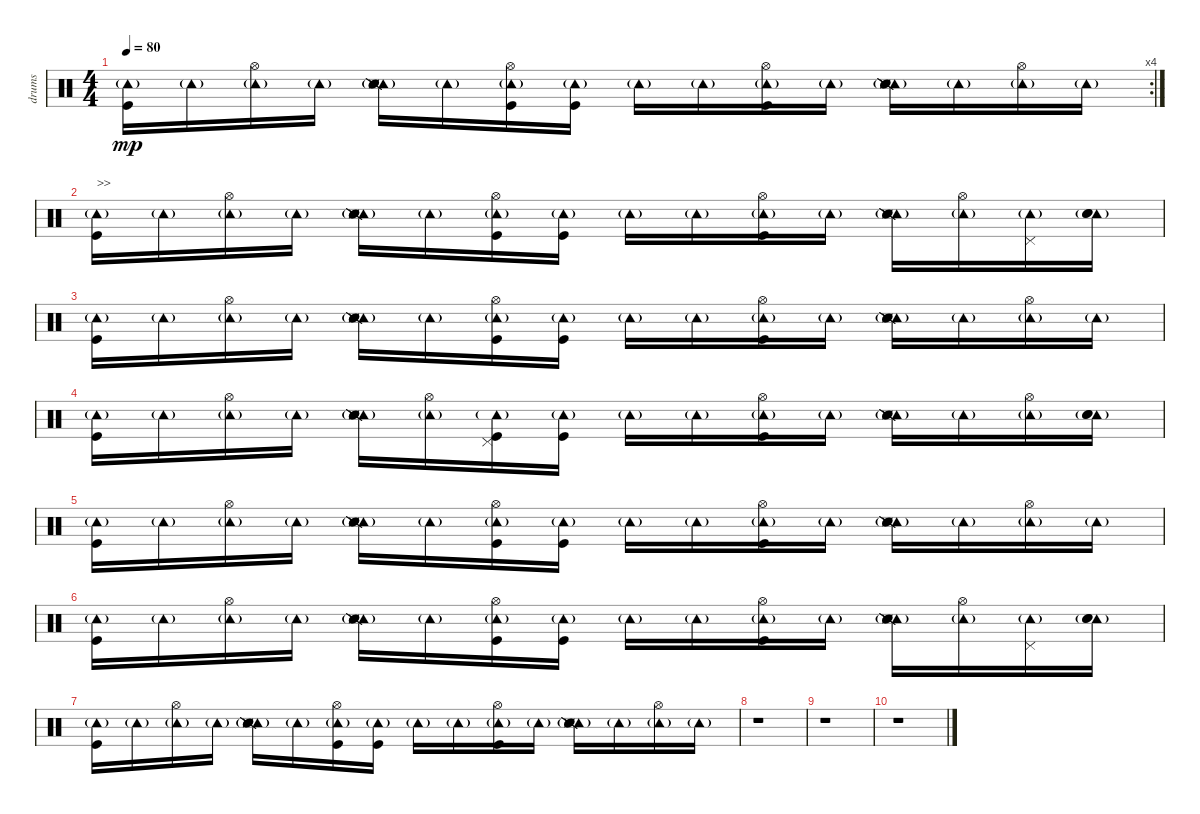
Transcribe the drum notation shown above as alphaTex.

\track ("drums" "drums") {instrument percussion}
\staff {score}
\articulation defaults
\rc 4
\ts (4 4)
\tempo 80
\clef neutral
\ks c
("Tambourine (hit)"{g} "Kick (hit)").16{dy mp} "Tambourine (hit)"{g}.16 ("Tambourine (hit)"{g} "Hi-Hat (open)").16 "Tambourine (hit)"{g}.16 ("Tambourine (hit)"{g} "Snare (side stick) 2" "Snare (side stick) 2" "Metronome (hit)" "Metronome (hit)").16 "Tambourine (hit)"{g}.16 ("Tambourine (hit)"{g} "Hi-Hat (open)" "Kick (hit)").16 ("Tambourine (hit)"{g} "Kick (hit)").16 "Tambourine (hit)"{g}.16 "Tambourine (hit)"{g}.16 ("Tambourine (hit)"{g} "Hi-Hat (open)" "Kick (hit)").16 "Tambourine (hit)"{g}.16 ("Tambourine (hit)"{g} "Snare (side stick) 2" "Snare (side stick) 2" "Metronome (hit)" "Metronome (hit)").16 "Tambourine (hit)"{g}.16 ("Tambourine (hit)"{g} "Hi-Hat (open)").16 "Tambourine (hit)"{g}.16 |
("Tambourine (hit)"{g} "Kick (hit)").16{txt ">>"} "Tambourine (hit)"{g}.16 ("Tambourine (hit)"{g} "Hi-Hat (open)").16 "Tambourine (hit)"{g}.16 ("Tambourine (hit)"{g} "Snare (side stick) 2" "Snare (side stick) 2" "Metronome (hit)" "Metronome (hit)").16 "Tambourine (hit)"{g}.16 ("Tambourine (hit)"{g} "Hi-Hat (open)" "Kick (hit)").16 ("Tambourine (hit)"{g} "Kick (hit)").16 "Tambourine (hit)"{g}.16 "Tambourine (hit)"{g}.16 ("Tambourine (hit)"{g} "Hi-Hat (open)" "Kick (hit)").16 "Tambourine (hit)"{g}.16 ("Tambourine (hit)"{g} "Snare (side stick) 2" "Snare (side stick) 2" "Metronome (hit)" "Metronome (hit)").16 ("Tambourine (hit)"{g} "Hi-Hat (open)").16 ("Tambourine (hit)"{g} "Pedal Hi-Hat (hit)").16 ("Tambourine (hit)"{g} "Snare (hit) 2" "Snare (hit) 2").16 |
("Tambourine (hit)"{g} "Kick (hit)").16 "Tambourine (hit)"{g}.16 ("Tambourine (hit)"{g} "Hi-Hat (open)").16 "Tambourine (hit)"{g}.16 ("Tambourine (hit)"{g} "Snare (side stick) 2" "Snare (side stick) 2" "Metronome (hit)" "Metronome (hit)").16 "Tambourine (hit)"{g}.16 ("Tambourine (hit)"{g} "Hi-Hat (open)" "Kick (hit)").16 ("Tambourine (hit)"{g} "Kick (hit)").16 "Tambourine (hit)"{g}.16 "Tambourine (hit)"{g}.16 ("Tambourine (hit)"{g} "Hi-Hat (open)" "Kick (hit)").16 "Tambourine (hit)"{g}.16 ("Tambourine (hit)"{g} "Snare (side stick) 2" "Snare (side stick) 2" "Metronome (hit)" "Metronome (hit)").16 "Tambourine (hit)"{g}.16 ("Tambourine (hit)"{g} "Hi-Hat (open)").16 "Tambourine (hit)"{g}.16 |
("Tambourine (hit)"{g} "Kick (hit)").16 "Tambourine (hit)"{g}.16 ("Tambourine (hit)"{g} "Hi-Hat (open)").16 "Tambourine (hit)"{g}.16 ("Tambourine (hit)"{g} "Snare (side stick) 2" "Snare (side stick) 2" "Metronome (hit)" "Metronome (hit)").16 ("Tambourine (hit)"{g} "Hi-Hat (open)").16 ("Tambourine (hit)"{g} "Pedal Hi-Hat (hit)" "Kick (hit)").16 ("Tambourine (hit)"{g} "Kick (hit)").16 "Tambourine (hit)"{g}.16 "Tambourine (hit)"{g}.16 ("Tambourine (hit)"{g} "Hi-Hat (open)" "Kick (hit)").16 "Tambourine (hit)"{g}.16 ("Tambourine (hit)"{g} "Snare (side stick) 2" "Snare (side stick) 2" "Metronome (hit)" "Metronome (hit)").16 "Tambourine (hit)"{g}.16 ("Tambourine (hit)"{g} "Hi-Hat (open)").16 ("Tambourine (hit)"{g} "Snare (hit) 2" "Snare (hit) 2").16 |
("Tambourine (hit)"{g} "Kick (hit)").16 "Tambourine (hit)"{g}.16 ("Tambourine (hit)"{g} "Hi-Hat (open)").16 "Tambourine (hit)"{g}.16 ("Tambourine (hit)"{g} "Snare (side stick) 2" "Snare (side stick) 2" "Metronome (hit)" "Metronome (hit)").16 "Tambourine (hit)"{g}.16 ("Tambourine (hit)"{g} "Hi-Hat (open)" "Kick (hit)").16 ("Tambourine (hit)"{g} "Kick (hit)").16 "Tambourine (hit)"{g}.16 "Tambourine (hit)"{g}.16 ("Tambourine (hit)"{g} "Hi-Hat (open)" "Kick (hit)").16 "Tambourine (hit)"{g}.16 ("Tambourine (hit)"{g} "Snare (side stick) 2" "Snare (side stick) 2" "Metronome (hit)" "Metronome (hit)").16 "Tambourine (hit)"{g}.16 ("Tambourine (hit)"{g} "Hi-Hat (open)").16 "Tambourine (hit)"{g}.16 |
("Tambourine (hit)"{g} "Kick (hit)").16 "Tambourine (hit)"{g}.16 ("Tambourine (hit)"{g} "Hi-Hat (open)").16 "Tambourine (hit)"{g}.16 ("Tambourine (hit)"{g} "Snare (side stick) 2" "Snare (side stick) 2" "Metronome (hit)" "Metronome (hit)").16 "Tambourine (hit)"{g}.16 ("Tambourine (hit)"{g} "Hi-Hat (open)" "Kick (hit)").16 ("Tambourine (hit)"{g} "Kick (hit)").16 "Tambourine (hit)"{g}.16 "Tambourine (hit)"{g}.16 ("Tambourine (hit)"{g} "Hi-Hat (open)" "Kick (hit)").16 "Tambourine (hit)"{g}.16 ("Tambourine (hit)"{g} "Snare (side stick) 2" "Snare (side stick) 2" "Metronome (hit)" "Metronome (hit)").16 ("Tambourine (hit)"{g} "Hi-Hat (open)").16 ("Tambourine (hit)"{g} "Pedal Hi-Hat (hit)").16 ("Tambourine (hit)"{g} "Snare (hit) 2" "Snare (hit) 2").16 |
("Tambourine (hit)"{g} "Kick (hit)").16 "Tambourine (hit)"{g}.16 ("Tambourine (hit)"{g} "Hi-Hat (open)").16 "Tambourine (hit)"{g}.16 ("Tambourine (hit)"{g} "Snare (side stick) 2" "Snare (side stick) 2" "Metronome (hit)" "Metronome (hit)").16 "Tambourine (hit)"{g}.16 ("Tambourine (hit)"{g} "Hi-Hat (open)" "Kick (hit)").16 ("Tambourine (hit)"{g} "Kick (hit)").16 "Tambourine (hit)"{g}.16 "Tambourine (hit)"{g}.16 ("Tambourine (hit)"{g} "Hi-Hat (open)" "Kick (hit)").16 "Tambourine (hit)"{g}.16 ("Tambourine (hit)"{g} "Snare (side stick) 2" "Snare (side stick) 2" "Metronome (hit)" "Metronome (hit)").16 "Tambourine (hit)"{g}.16 ("Tambourine (hit)"{g} "Hi-Hat (open)").16 "Tambourine (hit)"{g}.16 |
r.1 |
r.1 |
r.1
